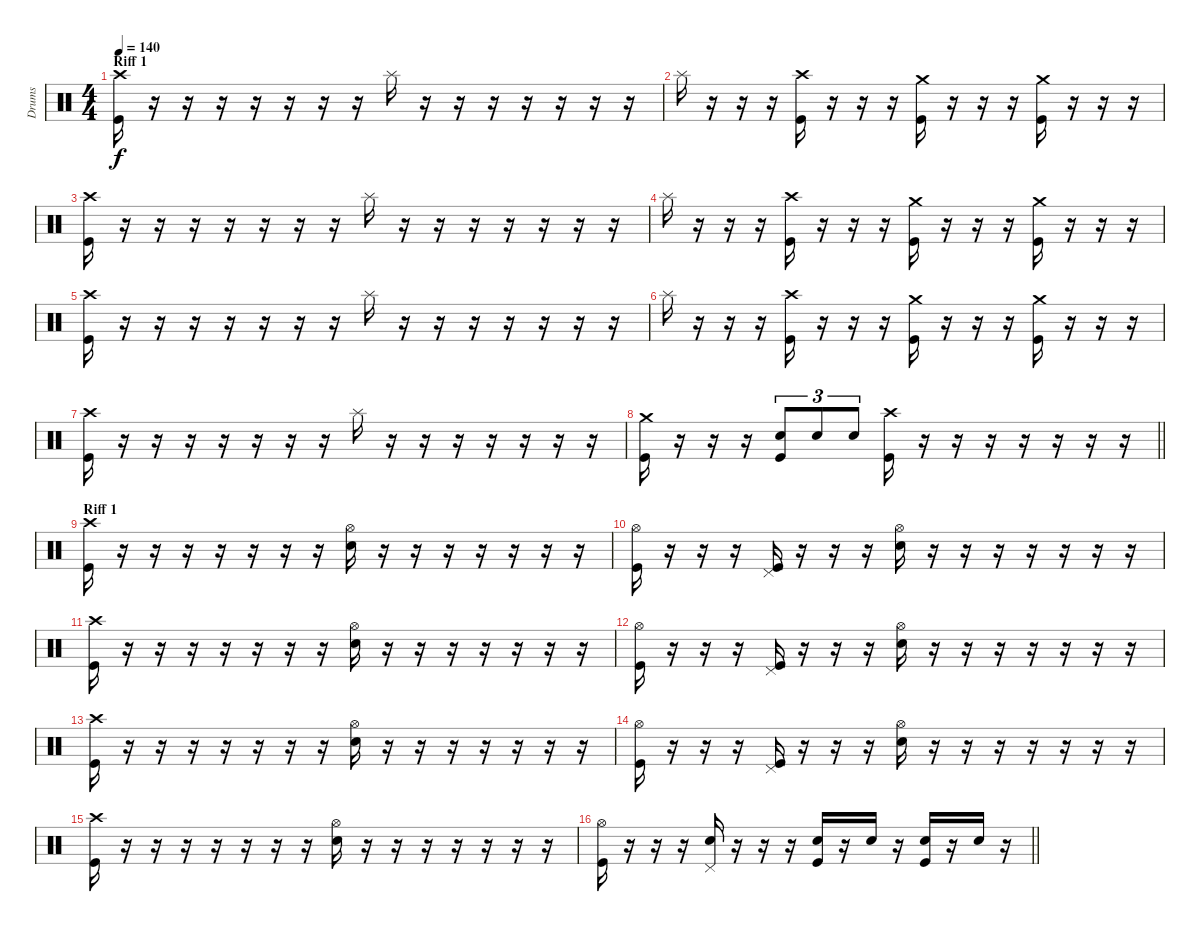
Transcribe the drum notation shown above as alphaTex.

\track ("Drums" "Drums") {instrument percussion}
\staff {score}
\articulation defaults
\ts (4 4)
\section ("" "Riff 1")
\tempo 140
\clef neutral
\ks c
("Crash high (hit)" "Kick (hit)").16{dy f} r.16 r.16 r.16 r.16 r.16 r.16 r.16 "Splash (hit)".16 r.16 r.16 r.16 r.16 r.16 r.16 r.16 |
"Splash (hit)".16 r.16 r.16 r.16 ("Crash high (hit)" "Kick (hit)").16 r.16 r.16 r.16 ("Crash medium (hit)" "Kick (hit)").16 r.16 r.16 r.16 ("Crash medium (hit)" "Kick (hit)").16 r.16 r.16 r.16 |
("Crash high (hit)" "Kick (hit)").16 r.16 r.16 r.16 r.16 r.16 r.16 r.16 "Splash (hit)".16 r.16 r.16 r.16 r.16 r.16 r.16 r.16 |
"Splash (hit)".16 r.16 r.16 r.16 ("Crash high (hit)" "Kick (hit)").16 r.16 r.16 r.16 ("Crash medium (hit)" "Kick (hit)").16 r.16 r.16 r.16 ("Crash medium (hit)" "Kick (hit)").16 r.16 r.16 r.16 |
("Crash high (hit)" "Kick (hit)").16 r.16 r.16 r.16 r.16 r.16 r.16 r.16 "Splash (hit)".16 r.16 r.16 r.16 r.16 r.16 r.16 r.16 |
"Splash (hit)".16 r.16 r.16 r.16 ("Crash high (hit)" "Kick (hit)").16 r.16 r.16 r.16 ("Crash medium (hit)" "Kick (hit)").16 r.16 r.16 r.16 ("Crash medium (hit)" "Kick (hit)").16 r.16 r.16 r.16 |
("Crash high (hit)" "Kick (hit)").16 r.16 r.16 r.16 r.16 r.16 r.16 r.16 "Splash (hit)".16 r.16 r.16 r.16 r.16 r.16 r.16 r.16 |
\barLineRight lightlight
("Crash medium (hit)" "Kick (hit)").16 r.16 r.16 r.16 ("Electric Snare (hit)" "Kick (hit)").8{tu (3 2)} "Electric Snare (hit)".8{tu (3 2)} "Electric Snare (hit)".8{tu (3 2)} ("Crash high (hit)" "Kick (hit)").16 r.16 r.16 r.16 r.16 r.16 r.16 r.16 |
\section ("" "Riff 1")
("Crash high (hit)" "Kick (hit)").16 r.16 r.16 r.16 r.16 r.16 r.16 r.16 ("Hi-Hat (open)" "Electric Snare (hit)").16 r.16 r.16 r.16 r.16 r.16 r.16 r.16 |
("Hi-Hat (open)" "Kick (hit)").16 r.16 r.16 r.16 ("Pedal Hi-Hat (hit)" "Kick (hit)").16 r.16 r.16 r.16 ("Hi-Hat (open)" "Electric Snare (hit)").16 r.16 r.16 r.16 r.16 r.16 r.16 r.16 |
("Crash high (hit)" "Kick (hit)").16 r.16 r.16 r.16 r.16 r.16 r.16 r.16 ("Hi-Hat (open)" "Electric Snare (hit)").16 r.16 r.16 r.16 r.16 r.16 r.16 r.16 |
("Hi-Hat (open)" "Kick (hit)").16 r.16 r.16 r.16 ("Pedal Hi-Hat (hit)" "Kick (hit)").16 r.16 r.16 r.16 ("Hi-Hat (open)" "Electric Snare (hit)").16 r.16 r.16 r.16 r.16 r.16 r.16 r.16 |
("Crash high (hit)" "Kick (hit)").16 r.16 r.16 r.16 r.16 r.16 r.16 r.16 ("Hi-Hat (open)" "Electric Snare (hit)").16 r.16 r.16 r.16 r.16 r.16 r.16 r.16 |
("Hi-Hat (open)" "Kick (hit)").16 r.16 r.16 r.16 ("Pedal Hi-Hat (hit)" "Kick (hit)").16 r.16 r.16 r.16 ("Hi-Hat (open)" "Electric Snare (hit)").16 r.16 r.16 r.16 r.16 r.16 r.16 r.16 |
("Crash high (hit)" "Kick (hit)").16 r.16 r.16 r.16 r.16 r.16 r.16 r.16 ("Hi-Hat (open)" "Electric Snare (hit)").16 r.16 r.16 r.16 r.16 r.16 r.16 r.16 |
\barLineRight lightlight
("Hi-Hat (open)" "Kick (hit)").16 r.16 r.16 r.16 ("Pedal Hi-Hat (hit)" "Electric Snare (hit)").16 r.16 r.16 r.16 ("Electric Snare (hit)" "Kick (hit)").16 r.16 "Electric Snare (hit)".16 r.16 ("Electric Snare (hit)" "Kick (hit)").16 r.16 "Electric Snare (hit)".16 r.16
